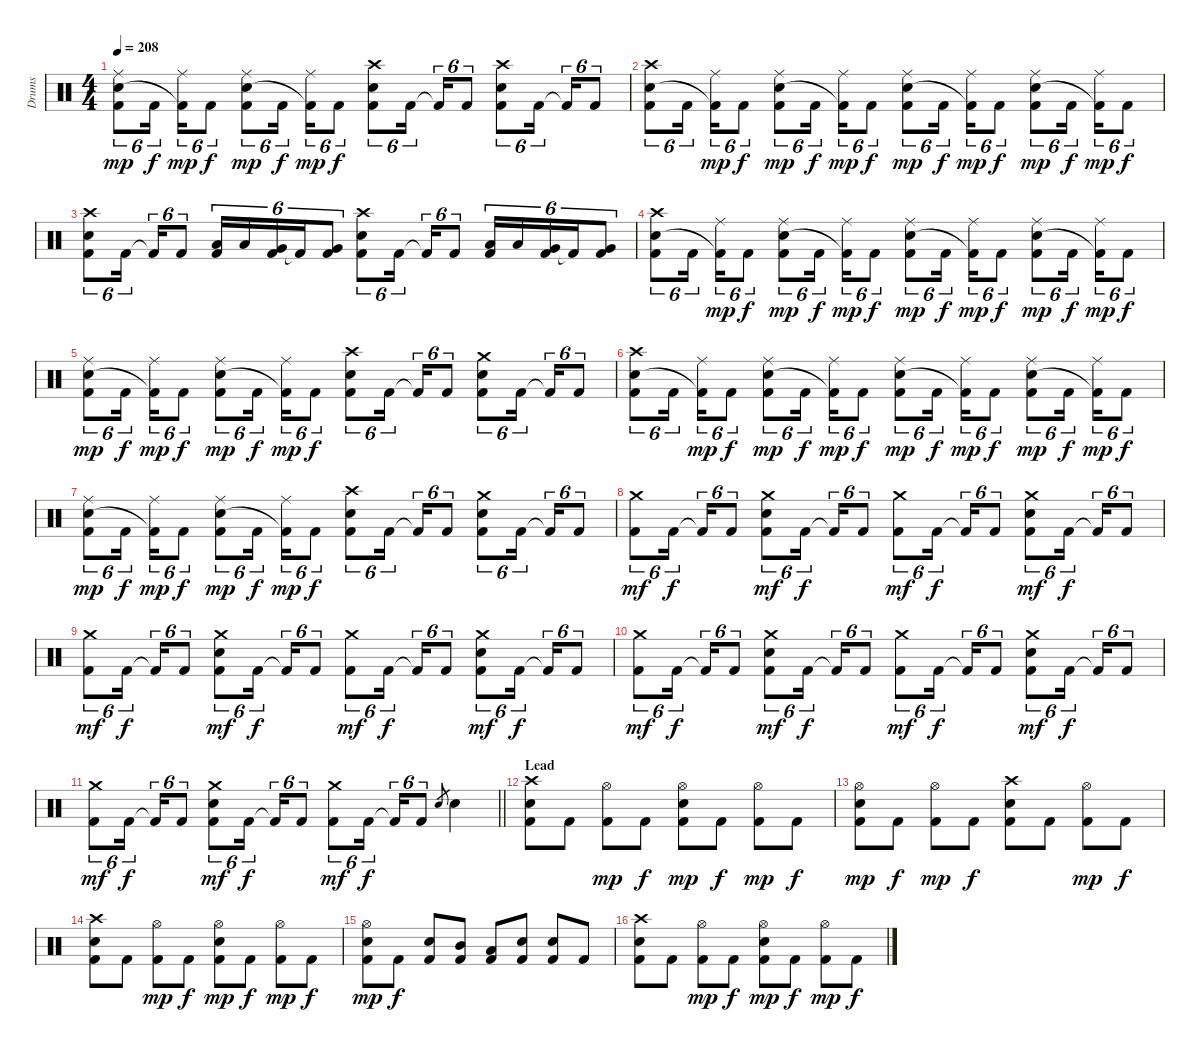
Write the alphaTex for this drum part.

\track ("Drums" "Drums") {instrument percussion}
\staff {score}
\articulation defaults
\ts (4 4)
\tempo 208
\clef neutral
\ks c
("Ride (middle)" "Electric Snare (hit)" "Kick (hit) 2").8{tu (6 4) dy mp} "Kick (hit) 2".16{tu (6 4) dy f} ("Ride (middle)" "Kick (hit) 2"{t}).16{tu (6 4) dy mp} "Kick (hit) 2".8{tu (6 4) dy f} ("Ride (middle)" "Electric Snare (hit)" "Kick (hit) 2").8{tu (6 4) dy mp} "Kick (hit) 2".16{tu (6 4) dy f} ("Ride (middle)" "Kick (hit) 2"{t}).16{tu (6 4) dy mp} "Kick (hit) 2".8{tu (6 4) dy f} ("Crash high (hit)" "Electric Snare (hit)" "Kick (hit) 2").8{tu (6 4)} "Kick (hit) 2".16{tu (6 4)} "Kick (hit) 2"{t}.16{tu (6 4)} "Kick (hit) 2".8{tu (6 4)} ("Crash high (hit)" "Electric Snare (hit)" "Kick (hit) 2").8{tu (6 4)} "Kick (hit) 2".16{tu (6 4)} "Kick (hit) 2"{t}.16{tu (6 4)} "Kick (hit) 2".8{tu (6 4)} |
("Crash high (hit)" "Electric Snare (hit)" "Kick (hit) 2").8{tu (6 4)} "Kick (hit) 2".16{tu (6 4)} ("Ride (middle)" "Kick (hit) 2"{t}).16{tu (6 4) dy mp} "Kick (hit) 2".8{tu (6 4) dy f} ("Ride (middle)" "Electric Snare (hit)" "Kick (hit) 2").8{tu (6 4) dy mp} "Kick (hit) 2".16{tu (6 4) dy f} ("Ride (middle)" "Kick (hit) 2"{t}).16{tu (6 4) dy mp} "Kick (hit) 2".8{tu (6 4) dy f} ("Ride (middle)" "Electric Snare (hit)" "Kick (hit) 2").8{tu (6 4) dy mp} "Kick (hit) 2".16{tu (6 4) dy f} ("Ride (middle)" "Kick (hit) 2"{t}).16{tu (6 4) dy mp} "Kick (hit) 2".8{tu (6 4) dy f} ("Ride (middle)" "Electric Snare (hit)" "Kick (hit) 2").8{tu (6 4) dy mp} "Kick (hit) 2".16{tu (6 4) dy f} ("Ride (middle)" "Kick (hit) 2"{t}).16{tu (6 4) dy mp} "Kick (hit) 2".8{tu (6 4) dy f} |
("Crash high (hit)" "Electric Snare (hit)" "Kick (hit) 2").8{tu (6 4)} "Kick (hit) 2".16{tu (6 4)} "Kick (hit) 2"{t}.16{tu (6 4)} "Kick (hit) 2".8{tu (6 4)} ("Low Tom (hit)" "Kick (hit) 2").16{tu (6 4)} "Low Tom (hit)".16{tu (6 4)} ("Very Low Tom (hit)" "Kick (hit) 2").16{tu (6 4)} "Kick (hit) 2"{t}.16{tu (6 4)} ("Very Low Tom (hit)" "Kick (hit) 2").8{tu (6 4)} ("Crash high (hit)" "Electric Snare (hit)" "Kick (hit) 2").8{tu (6 4)} "Kick (hit) 2".16{tu (6 4)} "Kick (hit) 2"{t}.16{tu (6 4)} "Kick (hit) 2".8{tu (6 4)} ("Low Tom (hit)" "Kick (hit) 2").16{tu (6 4)} "Low Tom (hit)".16{tu (6 4)} ("Very Low Tom (hit)" "Kick (hit) 2").16{tu (6 4)} "Kick (hit) 2"{t}.16{tu (6 4)} ("Very Low Tom (hit)" "Kick (hit) 2").8{tu (6 4)} |
("Crash high (hit)" "Electric Snare (hit)" "Kick (hit) 2").8{tu (6 4)} "Kick (hit) 2".16{tu (6 4)} ("Ride (middle)" "Kick (hit) 2"{t}).16{tu (6 4) dy mp} "Kick (hit) 2".8{tu (6 4) dy f} ("Ride (middle)" "Electric Snare (hit)" "Kick (hit) 2").8{tu (6 4) dy mp} "Kick (hit) 2".16{tu (6 4) dy f} ("Ride (middle)" "Kick (hit) 2"{t}).16{tu (6 4) dy mp} "Kick (hit) 2".8{tu (6 4) dy f} ("Ride (middle)" "Electric Snare (hit)" "Kick (hit) 2").8{tu (6 4) dy mp} "Kick (hit) 2".16{tu (6 4) dy f} ("Ride (middle)" "Kick (hit) 2"{t}).16{tu (6 4) dy mp} "Kick (hit) 2".8{tu (6 4) dy f} ("Ride (middle)" "Electric Snare (hit)" "Kick (hit) 2").8{tu (6 4) dy mp} "Kick (hit) 2".16{tu (6 4) dy f} ("Ride (middle)" "Kick (hit) 2"{t}).16{tu (6 4) dy mp} "Kick (hit) 2".8{tu (6 4) dy f} |
("Ride (middle)" "Electric Snare (hit)" "Kick (hit) 2").8{tu (6 4) dy mp} "Kick (hit) 2".16{tu (6 4) dy f} ("Ride (middle)" "Kick (hit) 2"{t}).16{tu (6 4) dy mp} "Kick (hit) 2".8{tu (6 4) dy f} ("Ride (middle)" "Electric Snare (hit)" "Kick (hit) 2").8{tu (6 4) dy mp} "Kick (hit) 2".16{tu (6 4) dy f} ("Ride (middle)" "Kick (hit) 2"{t}).16{tu (6 4) dy mp} "Kick (hit) 2".8{tu (6 4) dy f} ("Crash high (hit)" "Electric Snare (hit)" "Kick (hit) 2").8{tu (6 4)} "Kick (hit) 2".16{tu (6 4)} "Kick (hit) 2"{t}.16{tu (6 4)} "Kick (hit) 2".8{tu (6 4)} ("Crash medium (hit)" "Electric Snare (hit)" "Kick (hit) 2").8{tu (6 4)} "Kick (hit) 2".16{tu (6 4)} "Kick (hit) 2"{t}.16{tu (6 4)} "Kick (hit) 2".8{tu (6 4)} |
("Crash high (hit)" "Electric Snare (hit)" "Kick (hit) 2").8{tu (6 4)} "Kick (hit) 2".16{tu (6 4)} ("Ride (middle)" "Kick (hit) 2"{t}).16{tu (6 4) dy mp} "Kick (hit) 2".8{tu (6 4) dy f} ("Ride (middle)" "Electric Snare (hit)" "Kick (hit) 2").8{tu (6 4) dy mp} "Kick (hit) 2".16{tu (6 4) dy f} ("Ride (middle)" "Kick (hit) 2"{t}).16{tu (6 4) dy mp} "Kick (hit) 2".8{tu (6 4) dy f} ("Ride (middle)" "Electric Snare (hit)" "Kick (hit) 2").8{tu (6 4) dy mp} "Kick (hit) 2".16{tu (6 4) dy f} ("Ride (middle)" "Kick (hit) 2"{t}).16{tu (6 4) dy mp} "Kick (hit) 2".8{tu (6 4) dy f} ("Ride (middle)" "Electric Snare (hit)" "Kick (hit) 2").8{tu (6 4) dy mp} "Kick (hit) 2".16{tu (6 4) dy f} ("Ride (middle)" "Kick (hit) 2"{t}).16{tu (6 4) dy mp} "Kick (hit) 2".8{tu (6 4) dy f} |
("Ride (middle)" "Electric Snare (hit)" "Kick (hit) 2").8{tu (6 4) dy mp} "Kick (hit) 2".16{tu (6 4) dy f} ("Ride (middle)" "Kick (hit) 2"{t}).16{tu (6 4) dy mp} "Kick (hit) 2".8{tu (6 4) dy f} ("Ride (middle)" "Electric Snare (hit)" "Kick (hit) 2").8{tu (6 4) dy mp} "Kick (hit) 2".16{tu (6 4) dy f} ("Ride (middle)" "Kick (hit) 2"{t}).16{tu (6 4) dy mp} "Kick (hit) 2".8{tu (6 4) dy f} ("Crash high (hit)" "Electric Snare (hit)" "Kick (hit) 2").8{tu (6 4)} "Kick (hit) 2".16{tu (6 4)} "Kick (hit) 2"{t}.16{tu (6 4)} "Kick (hit) 2".8{tu (6 4)} ("Crash medium (hit)" "Electric Snare (hit)" "Kick (hit) 2").8{tu (6 4)} "Kick (hit) 2".16{tu (6 4)} "Kick (hit) 2"{t}.16{tu (6 4)} "Kick (hit) 2".8{tu (6 4)} |
("Crash medium (hit)" "Kick (hit) 2").8{tu (6 4) dy mf} "Kick (hit) 2".16{tu (6 4) dy f} "Kick (hit) 2"{t}.16{tu (6 4)} "Kick (hit) 2".8{tu (6 4)} ("Crash medium (hit)" "Electric Snare (hit)" "Kick (hit) 2").8{tu (6 4) dy mf} "Kick (hit) 2".16{tu (6 4) dy f} "Kick (hit) 2"{t}.16{tu (6 4)} "Kick (hit) 2".8{tu (6 4)} ("Crash medium (hit)" "Kick (hit) 2").8{tu (6 4) dy mf} "Kick (hit) 2".16{tu (6 4) dy f} "Kick (hit) 2"{t}.16{tu (6 4)} "Kick (hit) 2".8{tu (6 4)} ("Crash medium (hit)" "Electric Snare (hit)" "Kick (hit) 2").8{tu (6 4) dy mf} "Kick (hit) 2".16{tu (6 4) dy f} "Kick (hit) 2"{t}.16{tu (6 4)} "Kick (hit) 2".8{tu (6 4)} |
("Crash medium (hit)" "Kick (hit) 2").8{tu (6 4) dy mf} "Kick (hit) 2".16{tu (6 4) dy f} "Kick (hit) 2"{t}.16{tu (6 4)} "Kick (hit) 2".8{tu (6 4)} ("Crash medium (hit)" "Electric Snare (hit)" "Kick (hit) 2").8{tu (6 4) dy mf} "Kick (hit) 2".16{tu (6 4) dy f} "Kick (hit) 2"{t}.16{tu (6 4)} "Kick (hit) 2".8{tu (6 4)} ("Crash medium (hit)" "Kick (hit) 2").8{tu (6 4) dy mf} "Kick (hit) 2".16{tu (6 4) dy f} "Kick (hit) 2"{t}.16{tu (6 4)} "Kick (hit) 2".8{tu (6 4)} ("Crash medium (hit)" "Electric Snare (hit)" "Kick (hit) 2").8{tu (6 4) dy mf} "Kick (hit) 2".16{tu (6 4) dy f} "Kick (hit) 2"{t}.16{tu (6 4)} "Kick (hit) 2".8{tu (6 4)} |
("Crash medium (hit)" "Kick (hit) 2").8{tu (6 4) dy mf} "Kick (hit) 2".16{tu (6 4) dy f} "Kick (hit) 2"{t}.16{tu (6 4)} "Kick (hit) 2".8{tu (6 4)} ("Crash medium (hit)" "Electric Snare (hit)" "Kick (hit) 2").8{tu (6 4) dy mf} "Kick (hit) 2".16{tu (6 4) dy f} "Kick (hit) 2"{t}.16{tu (6 4)} "Kick (hit) 2".8{tu (6 4)} ("Crash medium (hit)" "Kick (hit) 2").8{tu (6 4) dy mf} "Kick (hit) 2".16{tu (6 4) dy f} "Kick (hit) 2"{t}.16{tu (6 4)} "Kick (hit) 2".8{tu (6 4)} ("Crash medium (hit)" "Electric Snare (hit)" "Kick (hit) 2").8{tu (6 4) dy mf} "Kick (hit) 2".16{tu (6 4) dy f} "Kick (hit) 2"{t}.16{tu (6 4)} "Kick (hit) 2".8{tu (6 4)} |
\barLineRight lightlight
("Crash medium (hit)" "Kick (hit) 2").8{tu (6 4) dy mf} "Kick (hit) 2".16{tu (6 4) dy f} "Kick (hit) 2"{t}.16{tu (6 4)} "Kick (hit) 2".8{tu (6 4)} ("Crash medium (hit)" "Electric Snare (hit)" "Kick (hit) 2").8{tu (6 4) dy mf} "Kick (hit) 2".16{tu (6 4) dy f} "Kick (hit) 2"{t}.16{tu (6 4)} "Kick (hit) 2".8{tu (6 4)} ("Crash medium (hit)" "Kick (hit) 2").8{tu (6 4) dy mf} "Kick (hit) 2".16{tu (6 4) dy f} "Kick (hit) 2"{t}.16{tu (6 4)} "Kick (hit) 2".8{tu (6 4)} "Electric Snare (hit)".8{gr} "Electric Snare (hit)".4 |
\section ("" "Lead")
("Crash high (hit)" "Electric Snare (hit)" "Kick (hit) 2").8 "Kick (hit) 2".8 ("Hi-Hat (open)" "Kick (hit) 2").8{dy mp} "Kick (hit) 2".8{dy f} ("Hi-Hat (open)" "Electric Snare (hit)" "Kick (hit) 2").8{dy mp} "Kick (hit) 2".8{dy f} ("Hi-Hat (open)" "Kick (hit) 2").8{dy mp} "Kick (hit) 2".8{dy f} |
("Hi-Hat (open)" "Electric Snare (hit)" "Kick (hit) 2").8{dy mp} "Kick (hit) 2".8{dy f} ("Hi-Hat (open)" "Kick (hit) 2").8{dy mp} "Kick (hit) 2".8{dy f} ("Crash high (hit)" "Electric Snare (hit)" "Kick (hit) 2").8 "Kick (hit) 2".8 ("Hi-Hat (open)" "Kick (hit) 2").8{dy mp} "Kick (hit) 2".8{dy f} |
("Crash high (hit)" "Electric Snare (hit)" "Kick (hit) 2").8 "Kick (hit) 2".8 ("Hi-Hat (open)" "Kick (hit) 2").8{dy mp} "Kick (hit) 2".8{dy f} ("Hi-Hat (open)" "Electric Snare (hit)" "Kick (hit) 2").8{dy mp} "Kick (hit) 2".8{dy f} ("Hi-Hat (open)" "Kick (hit) 2").8{dy mp} "Kick (hit) 2".8{dy f} |
("Hi-Hat (open)" "Electric Snare (hit)" "Kick (hit) 2").8{dy mp} "Kick (hit) 2".8{dy f} ("Electric Snare (hit)" "Kick (hit) 2").8 ("Mid Tom (hit)" "Kick (hit) 2").8 ("Low Tom (hit)" "Kick (hit) 2").8 ("Electric Snare (hit)" "Kick (hit) 2").8 ("Electric Snare (hit)" "Kick (hit) 2").8 "Kick (hit) 2".8 |
("Crash high (hit)" "Electric Snare (hit)" "Kick (hit) 2").8 "Kick (hit) 2".8 ("Hi-Hat (open)" "Kick (hit) 2").8{dy mp} "Kick (hit) 2".8{dy f} ("Hi-Hat (open)" "Electric Snare (hit)" "Kick (hit) 2").8{dy mp} "Kick (hit) 2".8{dy f} ("Hi-Hat (open)" "Kick (hit) 2").8{dy mp} "Kick (hit) 2".8{dy f}
